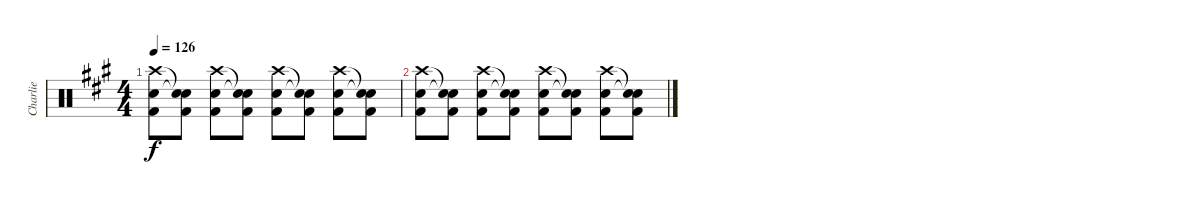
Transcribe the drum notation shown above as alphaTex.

\track ("Charlie" "Charlie") {instrument percussion}
\staff {score}
\articulation defaults
\ts (4 4)
\tempo 126
\clef neutral
\ks a
("Crash high (hit)" "Snare (hit) 2" "Kick (hit) 2").8{dy f} ("Snare (hit)"{t} "Snare (hit)"{t} "Kick (hit) 2").8 ("Crash high (hit)" "Snare (hit) 2" "Kick (hit) 2").8 ("Snare (hit)"{t} "Snare (hit)"{t} "Kick (hit) 2").8 ("Crash high (hit)" "Snare (hit) 2" "Kick (hit) 2").8 ("Snare (hit)"{t} "Snare (hit)"{t} "Kick (hit) 2").8 ("Crash high (hit)" "Snare (hit) 2" "Kick (hit) 2").8 ("Snare (hit)"{t} "Snare (hit)"{t} "Kick (hit) 2").8 |
("Crash high (hit)" "Snare (hit) 2" "Kick (hit) 2").8 ("Snare (hit)"{t} "Snare (hit)"{t} "Kick (hit) 2").8 ("Crash high (hit)" "Snare (hit) 2" "Kick (hit) 2").8 ("Snare (hit)"{t} "Snare (hit)"{t} "Kick (hit) 2").8 ("Crash high (hit)" "Snare (hit) 2" "Kick (hit) 2").8 ("Snare (hit)"{t} "Snare (hit)"{t} "Kick (hit) 2").8 ("Crash high (hit)" "Snare (hit) 2" "Kick (hit) 2").8 ("Snare (hit)"{t} "Snare (hit)"{t} "Kick (hit) 2").8
